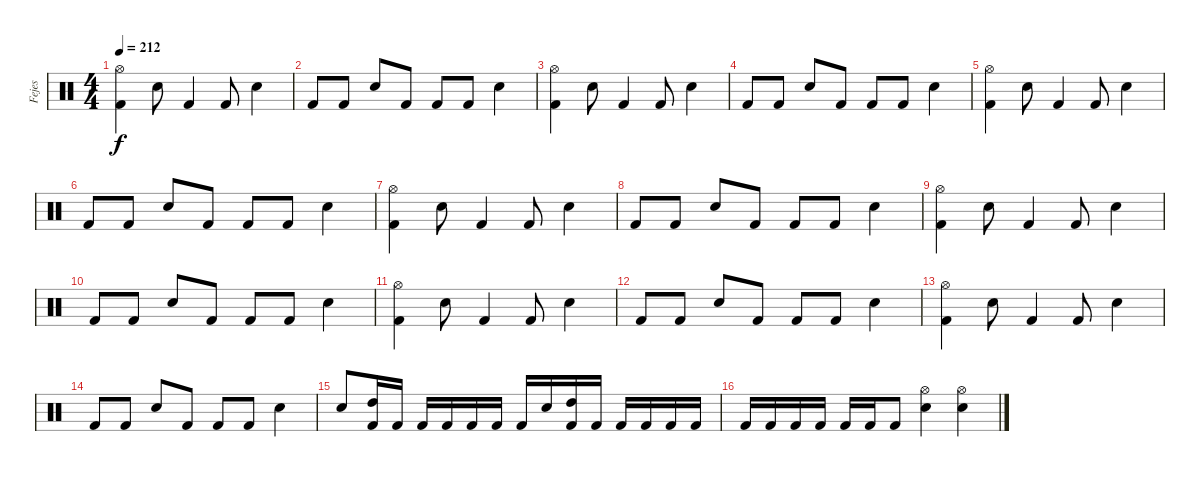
\track ("Fejes" "Fejes") {instrument percussion}
\staff {score}
\articulation defaults
\ts (4 4)
\tempo 212
\clef neutral
\ks c
("Hi-Hat (open)" "Kick (hit) 2").4{dy f} "Snare (hit) 2".8 "Kick (hit) 2".4 "Kick (hit) 2".8 "Snare (hit) 2".4 |
"Kick (hit) 2".8 "Kick (hit) 2".8 "Snare (hit) 2".8 "Kick (hit) 2".8 "Kick (hit) 2".8 "Kick (hit) 2".8 "Snare (hit) 2".4 |
("Hi-Hat (open)" "Kick (hit) 2").4 "Snare (hit) 2".8 "Kick (hit) 2".4 "Kick (hit) 2".8 "Snare (hit) 2".4 |
"Kick (hit) 2".8 "Kick (hit) 2".8 "Snare (hit) 2".8 "Kick (hit) 2".8 "Kick (hit) 2".8 "Kick (hit) 2".8 "Snare (hit) 2".4 |
("Hi-Hat (open)" "Kick (hit) 2").4 "Snare (hit) 2".8 "Kick (hit) 2".4 "Kick (hit) 2".8 "Snare (hit) 2".4 |
"Kick (hit) 2".8 "Kick (hit) 2".8 "Snare (hit) 2".8 "Kick (hit) 2".8 "Kick (hit) 2".8 "Kick (hit) 2".8 "Snare (hit) 2".4 |
("Hi-Hat (open)" "Kick (hit) 2").4 "Snare (hit) 2".8 "Kick (hit) 2".4 "Kick (hit) 2".8 "Snare (hit) 2".4 |
"Kick (hit) 2".8 "Kick (hit) 2".8 "Snare (hit) 2".8 "Kick (hit) 2".8 "Kick (hit) 2".8 "Kick (hit) 2".8 "Snare (hit) 2".4 |
("Hi-Hat (open)" "Kick (hit) 2").4 "Snare (hit) 2".8 "Kick (hit) 2".4 "Kick (hit) 2".8 "Snare (hit) 2".4 |
"Kick (hit) 2".8 "Kick (hit) 2".8 "Snare (hit) 2".8 "Kick (hit) 2".8 "Kick (hit) 2".8 "Kick (hit) 2".8 "Snare (hit) 2".4 |
("Hi-Hat (open)" "Kick (hit) 2").4 "Snare (hit) 2".8 "Kick (hit) 2".4 "Kick (hit) 2".8 "Snare (hit) 2".4 |
"Kick (hit) 2".8 "Kick (hit) 2".8 "Snare (hit) 2".8 "Kick (hit) 2".8 "Kick (hit) 2".8 "Kick (hit) 2".8 "Snare (hit) 2".4 |
("Hi-Hat (open)" "Kick (hit) 2").4 "Snare (hit) 2".8 "Kick (hit) 2".4 "Kick (hit) 2".8 "Snare (hit) 2".4 |
"Kick (hit) 2".8 "Kick (hit) 2".8 "Snare (hit) 2".8 "Kick (hit) 2".8 "Kick (hit) 2".8 "Kick (hit) 2".8 "Snare (hit) 2".4 |
"Snare (hit) 2".8 ("High Tom (hit)" "Kick (hit) 2").16 "Kick (hit) 2".16 "Kick (hit) 2".16 "Kick (hit) 2".16 "Kick (hit) 2".16 "Kick (hit) 2".16 "Kick (hit) 2".16 "Snare (hit) 2".16 ("High Tom (hit)" "Kick (hit) 2").16 "Kick (hit) 2".16 "Kick (hit) 2".16 "Kick (hit) 2".16 "Kick (hit) 2".16 "Kick (hit) 2".16 |
"Kick (hit) 2".16 "Kick (hit) 2".16 "Kick (hit) 2".16 "Kick (hit) 2".16 "Kick (hit) 2".16 "Kick (hit) 2".16 "Kick (hit) 2".8 ("Hi-Hat (open)" "Snare (hit) 2").4 ("Hi-Hat (open)" "Snare (hit) 2").4
